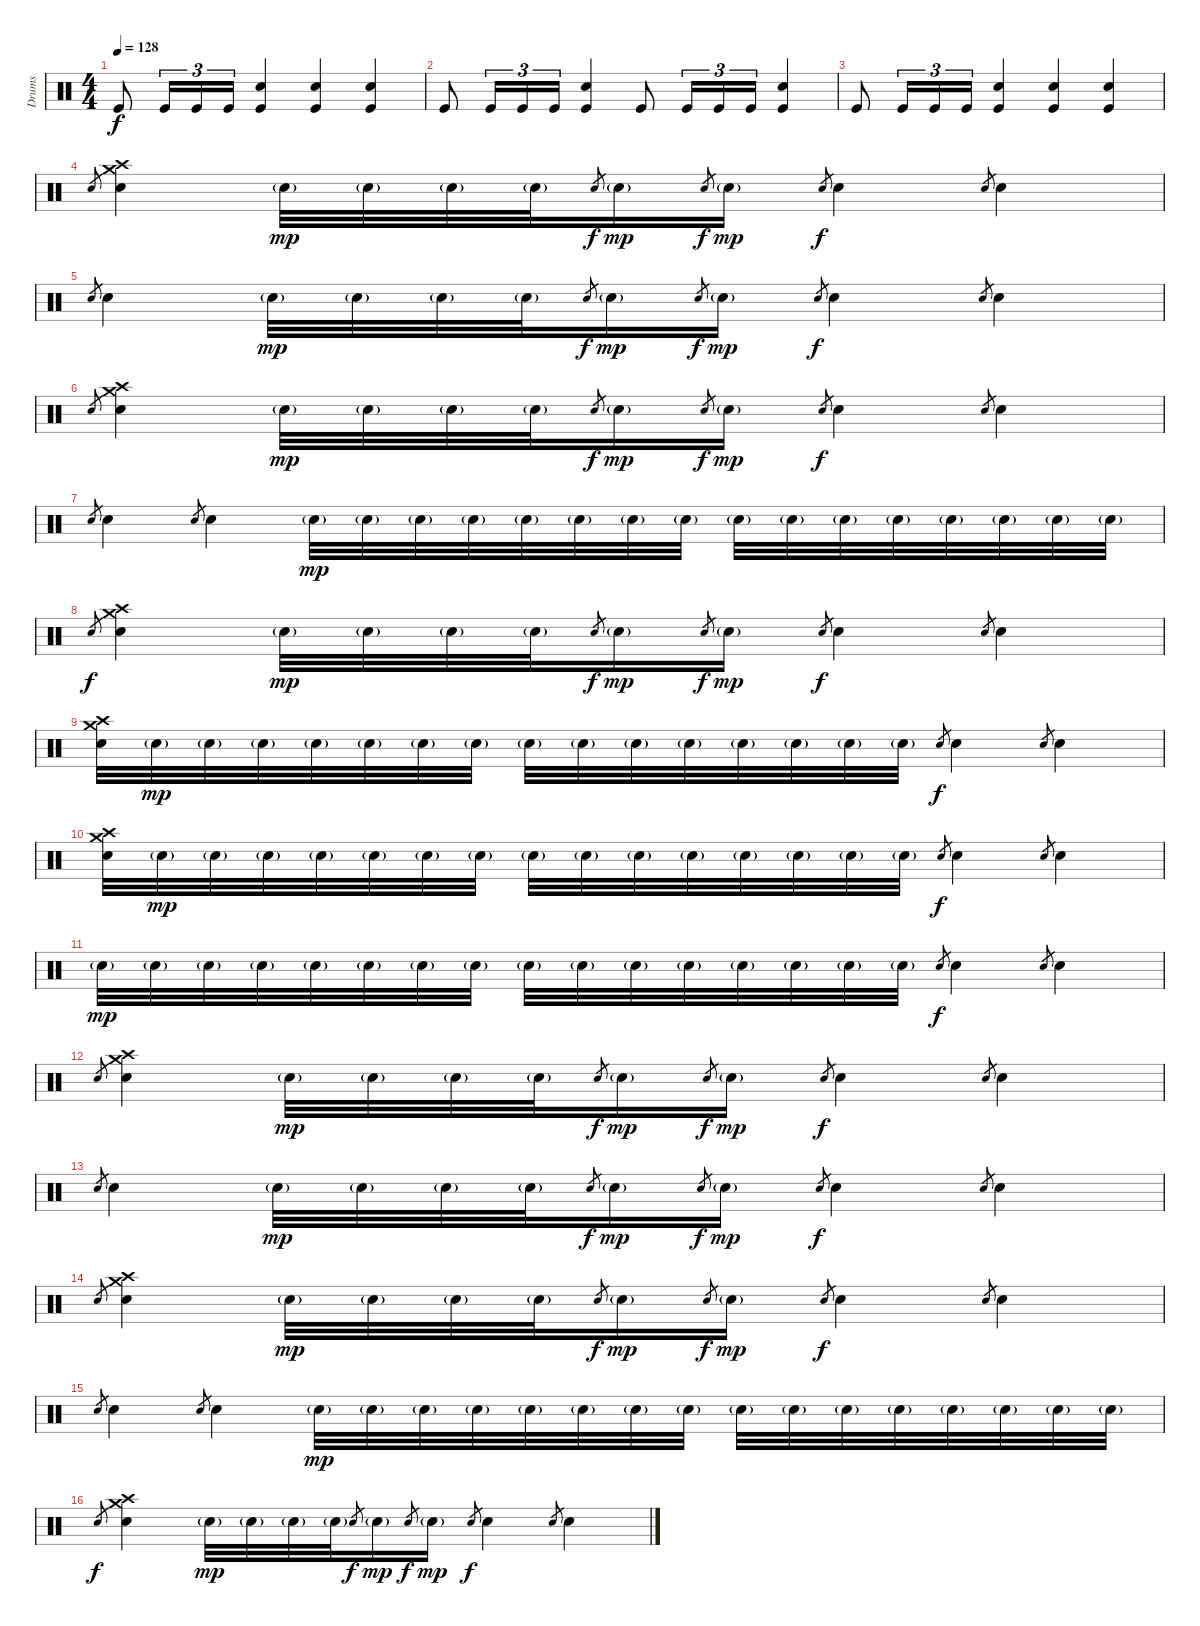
\track ("Drums" "Drums") {instrument percussion}
\staff {score}
\articulation defaults
\ts (4 4)
\tempo 128
\clef neutral
\ks c "Kick (hit)".8{dy f} "Kick (hit)".16{tu (3 2)} "Kick (hit)".16{tu (3 2)} "Kick (hit)".16{tu (3 2)}
("Snare (hit) 2" "Kick (hit)").4 ("Snare (hit) 2" "Kick (hit)").4 ("Snare (hit) 2" "Kick (hit)").4 |
"Kick (hit)".8 "Kick (hit)".16{tu (3 2)} "Kick (hit)".16{tu (3 2)} "Kick (hit)".16{tu (3 2)} ("Snare (hit) 2" "Kick (hit)").4 "Kick (hit)".8 "Kick (hit)".16{tu (3 2)} "Kick (hit)".16{tu (3 2)} "Kick (hit)".16{tu (3 2)} ("Snare (hit) 2" "Kick (hit)").4 |
"Kick (hit)".8 "Kick (hit)".16{tu (3 2)} "Kick (hit)".16{tu (3 2)} "Kick (hit)".16{tu (3 2)} ("Snare (hit) 2" "Kick (hit)").4 ("Snare (hit) 2" "Kick (hit)").4 ("Snare (hit) 2" "Kick (hit)").4 |
\section ("" "")
"Snare (hit) 2".8{gr} ("Crash medium (hit)" "Crash high (hit)" "Snare (hit) 2").4{volume 13} "Snare (hit) 2"{g}.32{dy mp} "Snare (hit) 2"{g}.32 "Snare (hit) 2"{g}.32 "Snare (hit) 2"{g}.32 "Snare (hit) 2".8{gr dy f} "Snare (hit) 2"{g}.16{dy mp} "Snare (hit) 2".8{gr dy f} "Snare (hit) 2"{g}.16{dy mp} "Snare (hit) 2".8{gr dy f} "Snare (hit) 2".4 "Snare (hit) 2".8{gr} "Snare (hit) 2".4 |
"Snare (hit) 2".8{gr} "Snare (hit) 2".4 "Snare (hit) 2"{g}.32{dy mp} "Snare (hit) 2"{g}.32 "Snare (hit) 2"{g}.32 "Snare (hit) 2"{g}.32 "Snare (hit) 2".8{gr dy f} "Snare (hit) 2"{g}.16{dy mp} "Snare (hit) 2".8{gr dy f} "Snare (hit) 2"{g}.16{dy mp} "Snare (hit) 2".8{gr dy f} "Snare (hit) 2".4 "Snare (hit) 2".8{gr} "Snare (hit) 2".4 |
"Snare (hit) 2".8{gr} ("Crash medium (hit)" "Crash high (hit)" "Snare (hit) 2").4 "Snare (hit) 2"{g}.32{dy mp} "Snare (hit) 2"{g}.32 "Snare (hit) 2"{g}.32 "Snare (hit) 2"{g}.32 "Snare (hit) 2".8{gr dy f} "Snare (hit) 2"{g}.16{dy mp} "Snare (hit) 2".8{gr dy f} "Snare (hit) 2"{g}.16{dy mp} "Snare (hit) 2".8{gr dy f} "Snare (hit) 2".4 "Snare (hit) 2".8{gr} "Snare (hit) 2".4 |
"Snare (hit) 2".8{gr} "Snare (hit) 2".4 "Snare (hit) 2".8{gr} "Snare (hit) 2".4 "Snare (hit) 2"{g}.32{dy mp} "Snare (hit) 2"{g}.32 "Snare (hit) 2"{g}.32 "Snare (hit) 2"{g}.32 "Snare (hit) 2"{g}.32 "Snare (hit) 2"{g}.32 "Snare (hit) 2"{g}.32 "Snare (hit) 2"{g}.32 "Snare (hit) 2"{g}.32 "Snare (hit) 2"{g}.32 "Snare (hit) 2"{g}.32 "Snare (hit) 2"{g}.32 "Snare (hit) 2"{g}.32 "Snare (hit) 2"{g}.32 "Snare (hit) 2"{g}.32 "Snare (hit) 2"{g}.32 |
"Snare (hit) 2".8{gr dy f} ("Crash medium (hit)" "Crash high (hit)" "Snare (hit) 2").4 "Snare (hit) 2"{g}.32{dy mp} "Snare (hit) 2"{g}.32 "Snare (hit) 2"{g}.32 "Snare (hit) 2"{g}.32 "Snare (hit) 2".8{gr dy f} "Snare (hit) 2"{g}.16{dy mp} "Snare (hit) 2".8{gr dy f} "Snare (hit) 2"{g}.16{dy mp} "Snare (hit) 2".8{gr dy f} "Snare (hit) 2".4 "Snare (hit) 2".8{gr} "Snare (hit) 2".4 |
("Crash medium (hit)" "Crash high (hit)" "Snare (hit) 2").32 "Snare (hit) 2"{g}.32{dy mp} "Snare (hit) 2"{g}.32 "Snare (hit) 2"{g}.32 "Snare (hit) 2"{g}.32 "Snare (hit) 2"{g}.32 "Snare (hit) 2"{g}.32 "Snare (hit) 2"{g}.32 "Snare (hit) 2"{g}.32 "Snare (hit) 2"{g}.32 "Snare (hit) 2"{g}.32 "Snare (hit) 2"{g}.32 "Snare (hit) 2"{g}.32 "Snare (hit) 2"{g}.32 "Snare (hit) 2"{g}.32 "Snare (hit) 2"{g}.32 "Snare (hit) 2".8{gr dy f} "Snare (hit) 2".4 "Snare (hit) 2".8{gr} "Snare (hit) 2".4 |
("Crash medium (hit)" "Crash high (hit)" "Snare (hit) 2").32 "Snare (hit) 2"{g}.32{dy mp} "Snare (hit) 2"{g}.32 "Snare (hit) 2"{g}.32 "Snare (hit) 2"{g}.32 "Snare (hit) 2"{g}.32 "Snare (hit) 2"{g}.32 "Snare (hit) 2"{g}.32 "Snare (hit) 2"{g}.32 "Snare (hit) 2"{g}.32 "Snare (hit) 2"{g}.32 "Snare (hit) 2"{g}.32 "Snare (hit) 2"{g}.32 "Snare (hit) 2"{g}.32 "Snare (hit) 2"{g}.32 "Snare (hit) 2"{g}.32 "Snare (hit) 2".8{gr dy f} "Snare (hit) 2".4 "Snare (hit) 2".8{gr} "Snare (hit) 2".4 |
"Snare (hit) 2"{g}.32{dy mp} "Snare (hit) 2"{g}.32 "Snare (hit) 2"{g}.32 "Snare (hit) 2"{g}.32 "Snare (hit) 2"{g}.32 "Snare (hit) 2"{g}.32 "Snare (hit) 2"{g}.32 "Snare (hit) 2"{g}.32 "Snare (hit) 2"{g}.32 "Snare (hit) 2"{g}.32 "Snare (hit) 2"{g}.32 "Snare (hit) 2"{g}.32 "Snare (hit) 2"{g}.32 "Snare (hit) 2"{g}.32 "Snare (hit) 2"{g}.32 "Snare (hit) 2"{g}.32 "Snare (hit) 2".8{gr dy f} "Snare (hit) 2".4 "Snare (hit) 2".8{gr} "Snare (hit) 2".4 |
"Snare (hit) 2".8{gr} ("Crash medium (hit)" "Crash high (hit)" "Snare (hit) 2").4 "Snare (hit) 2"{g}.32{dy mp} "Snare (hit) 2"{g}.32 "Snare (hit) 2"{g}.32 "Snare (hit) 2"{g}.32 "Snare (hit) 2".8{gr dy f} "Snare (hit) 2"{g}.16{dy mp} "Snare (hit) 2".8{gr dy f} "Snare (hit) 2"{g}.16{dy mp} "Snare (hit) 2".8{gr dy f} "Snare (hit) 2".4 "Snare (hit) 2".8{gr} "Snare (hit) 2".4 |
"Snare (hit) 2".8{gr} "Snare (hit) 2".4 "Snare (hit) 2"{g}.32{dy mp} "Snare (hit) 2"{g}.32 "Snare (hit) 2"{g}.32 "Snare (hit) 2"{g}.32 "Snare (hit) 2".8{gr dy f} "Snare (hit) 2"{g}.16{dy mp} "Snare (hit) 2".8{gr dy f} "Snare (hit) 2"{g}.16{dy mp} "Snare (hit) 2".8{gr dy f} "Snare (hit) 2".4 "Snare (hit) 2".8{gr} "Snare (hit) 2".4 |
"Snare (hit) 2".8{gr} ("Crash medium (hit)" "Crash high (hit)" "Snare (hit) 2").4 "Snare (hit) 2"{g}.32{dy mp} "Snare (hit) 2"{g}.32 "Snare (hit) 2"{g}.32 "Snare (hit) 2"{g}.32 "Snare (hit) 2".8{gr dy f} "Snare (hit) 2"{g}.16{dy mp} "Snare (hit) 2".8{gr dy f} "Snare (hit) 2"{g}.16{dy mp} "Snare (hit) 2".8{gr dy f} "Snare (hit) 2".4 "Snare (hit) 2".8{gr} "Snare (hit) 2".4 |
"Snare (hit) 2".8{gr} "Snare (hit) 2".4 "Snare (hit) 2".8{gr} "Snare (hit) 2".4 "Snare (hit) 2"{g}.32{dy mp} "Snare (hit) 2"{g}.32 "Snare (hit) 2"{g}.32 "Snare (hit) 2"{g}.32 "Snare (hit) 2"{g}.32 "Snare (hit) 2"{g}.32 "Snare (hit) 2"{g}.32 "Snare (hit) 2"{g}.32 "Snare (hit) 2"{g}.32 "Snare (hit) 2"{g}.32 "Snare (hit) 2"{g}.32 "Snare (hit) 2"{g}.32 "Snare (hit) 2"{g}.32 "Snare (hit) 2"{g}.32 "Snare (hit) 2"{g}.32 "Snare (hit) 2"{g}.32 |
"Snare (hit) 2".8{gr dy f} ("Crash medium (hit)" "Crash high (hit)" "Snare (hit) 2").4 "Snare (hit) 2"{g}.32{dy mp} "Snare (hit) 2"{g}.32 "Snare (hit) 2"{g}.32 "Snare (hit) 2"{g}.32 "Snare (hit) 2".8{gr dy f} "Snare (hit) 2"{g}.16{dy mp} "Snare (hit) 2".8{gr dy f} "Snare (hit) 2"{g}.16{dy mp} "Snare (hit) 2".8{gr dy f} "Snare (hit) 2".4 "Snare (hit) 2".8{gr} "Snare (hit) 2".4
